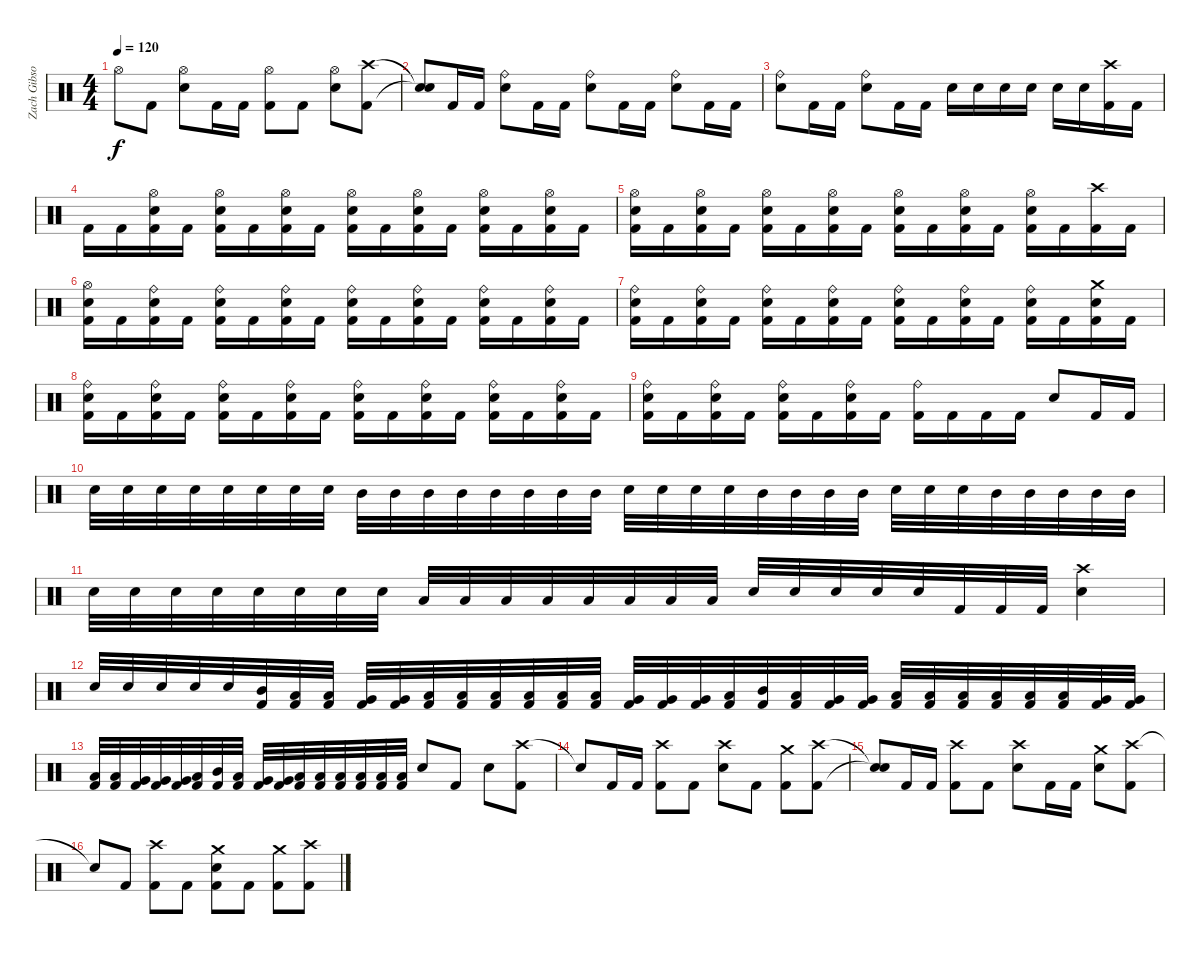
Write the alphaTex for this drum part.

\track ("Zach Gibson (Drums)" "Zach Gibso") {instrument percussion}
\staff {score}
\articulation defaults
\ts (4 4)
\tempo 120
\clef neutral
\ks c "Hi-Hat (open)".8{dy f} "Kick (hit) 2".8
("Hi-Hat (open)" "Snare (hit) 2").8 "Kick (hit) 2".16 "Kick (hit) 2".16 ("Kick (hit) 2" "Hi-Hat (open)").8 "Kick (hit) 2".8 ("Hi-Hat (open)" "Snare (hit) 2").8 ("Crash high (hit)" "Kick (hit) 2").8 |
("Snare (hit)"{t} "Snare (hit)"{t}).8 "Kick (hit) 2".16 "Kick (hit) 2".16 ("Ride (bell)" "Snare (hit) 2").8 "Kick (hit) 2".16 "Kick (hit) 2".16 ("Ride (bell)" "Snare (hit) 2").8 "Kick (hit) 2".16 "Kick (hit) 2".16 ("Ride (bell)" "Snare (hit) 2").8 "Kick (hit) 2".16 "Kick (hit) 2".16 |
("Ride (bell)" "Snare (hit) 2").8 "Kick (hit) 2".16 "Kick (hit) 2".16 ("Ride (bell)" "Snare (hit) 2").8 "Kick (hit) 2".16 "Kick (hit) 2".16 "Snare (hit) 2".16 "Snare (hit) 2".16 "Snare (hit) 2".16 "Snare (hit) 2".16 "Snare (hit) 2".16 "Snare (hit) 2".16 ("Crash high (hit)" "Kick (hit) 2").16 "Kick (hit) 2".16 |
"Kick (hit) 2".16 "Kick (hit) 2".16 ("Hi-Hat (open)" "Snare (hit) 2" "Kick (hit) 2").16 "Kick (hit) 2".16 ("Hi-Hat (open)" "Snare (hit) 2" "Kick (hit) 2").16 "Kick (hit) 2".16 ("Hi-Hat (open)" "Snare (hit) 2" "Kick (hit) 2").16 "Kick (hit) 2".16 ("Hi-Hat (open)" "Snare (hit) 2" "Kick (hit) 2").16 "Kick (hit) 2".16 ("Hi-Hat (open)" "Snare (hit) 2" "Kick (hit) 2").16 "Kick (hit) 2".16 ("Hi-Hat (open)" "Snare (hit) 2" "Kick (hit) 2").16 "Kick (hit) 2".16 ("Hi-Hat (open)" "Snare (hit) 2" "Kick (hit) 2").16 "Kick (hit) 2".16 |
("Hi-Hat (open)" "Snare (hit) 2" "Kick (hit) 2").16 "Kick (hit) 2".16 ("Hi-Hat (open)" "Snare (hit) 2" "Kick (hit) 2").16 "Kick (hit) 2".16 ("Hi-Hat (open)" "Snare (hit) 2" "Kick (hit) 2").16 "Kick (hit) 2".16 ("Hi-Hat (open)" "Snare (hit) 2" "Kick (hit) 2").16 "Kick (hit) 2".16 ("Hi-Hat (open)" "Snare (hit) 2" "Kick (hit) 2").16 "Kick (hit) 2".16 ("Hi-Hat (open)" "Snare (hit) 2" "Kick (hit) 2").16 "Kick (hit) 2".16 ("Hi-Hat (open)" "Snare (hit) 2" "Kick (hit) 2").16 "Kick (hit) 2".16 ("Crash high (hit)" "Kick (hit) 2").16 "Kick (hit) 2".16 |
("Hi-Hat (open)" "Snare (hit) 2" "Kick (hit) 2").16 "Kick (hit) 2".16 ("Ride (bell)" "Snare (hit) 2" "Kick (hit) 2").16 "Kick (hit) 2".16 ("Ride (bell)" "Snare (hit) 2" "Kick (hit) 2").16 "Kick (hit) 2".16 ("Ride (bell)" "Snare (hit) 2" "Kick (hit) 2").16 "Kick (hit) 2".16 ("Ride (bell)" "Snare (hit) 2" "Kick (hit) 2").16 "Kick (hit) 2".16 ("Ride (bell)" "Snare (hit) 2" "Kick (hit) 2").16 "Kick (hit) 2".16 ("Ride (bell)" "Snare (hit) 2" "Kick (hit) 2").16 "Kick (hit) 2".16 ("Ride (bell)" "Snare (hit) 2" "Kick (hit) 2").16 "Kick (hit) 2".16 |
("Ride (bell)" "Snare (hit) 2" "Kick (hit) 2").16 "Kick (hit) 2".16 ("Ride (bell)" "Snare (hit) 2" "Kick (hit) 2").16 "Kick (hit) 2".16 ("Ride (bell)" "Snare (hit) 2" "Kick (hit) 2").16 "Kick (hit) 2".16 ("Ride (bell)" "Snare (hit) 2" "Kick (hit) 2").16 "Kick (hit) 2".16 ("Ride (bell)" "Snare (hit) 2" "Kick (hit) 2").16 "Kick (hit) 2".16 ("Ride (bell)" "Snare (hit) 2" "Kick (hit) 2").16 "Kick (hit) 2".16 ("Ride (bell)" "Snare (hit) 2" "Kick (hit) 2").16 "Kick (hit) 2".16 ("Crash medium (hit)" "Snare (hit) 2" "Kick (hit) 2").16 "Kick (hit) 2".16 |
("Ride (bell)" "Snare (hit) 2" "Kick (hit) 2").16 "Kick (hit) 2".16 ("Ride (bell)" "Snare (hit) 2" "Kick (hit) 2").16 "Kick (hit) 2".16 ("Ride (bell)" "Snare (hit) 2" "Kick (hit) 2").16 "Kick (hit) 2".16 ("Ride (bell)" "Snare (hit) 2" "Kick (hit) 2").16 "Kick (hit) 2".16 ("Ride (bell)" "Snare (hit) 2" "Kick (hit) 2").16 "Kick (hit) 2".16 ("Ride (bell)" "Snare (hit) 2" "Kick (hit) 2").16 "Kick (hit) 2".16 ("Ride (bell)" "Snare (hit) 2" "Kick (hit) 2").16 "Kick (hit) 2".16 ("Ride (bell)" "Snare (hit) 2" "Kick (hit) 2").16 "Kick (hit) 2".16 |
("Ride (bell)" "Snare (hit) 2" "Kick (hit) 2").16 "Kick (hit) 2".16 ("Ride (bell)" "Snare (hit) 2" "Kick (hit) 2").16 "Kick (hit) 2".16 ("Ride (bell)" "Snare (hit) 2" "Kick (hit) 2").16 "Kick (hit) 2".16 ("Ride (bell)" "Snare (hit) 2" "Kick (hit) 2").16 "Kick (hit) 2".16 ("Ride (bell)" "Kick (hit) 2").16 "Kick (hit) 2".16 "Kick (hit) 2".16 "Kick (hit) 2".16 "Snare (hit) 2".8 "Kick (hit) 2".16 "Kick (hit) 2".16 |
"Snare (hit) 2".32 "Snare (hit) 2".32 "Snare (hit) 2".32 "Snare (hit) 2".32 "Snare (hit) 2".32 "Snare (hit) 2".32 "Snare (hit) 2".32 "Snare (hit) 2".32 "Mid Tom (hit)".32 "Mid Tom (hit)".32 "Mid Tom (hit)".32 "Mid Tom (hit)".32 "Mid Tom (hit)".32 "Mid Tom (hit)".32 "Mid Tom (hit)".32 "Mid Tom (hit)".32 "Snare (hit) 2".32 "Snare (hit) 2".32 "Snare (hit) 2".32 "Snare (hit) 2".32 "Mid Tom (hit)".32 "Mid Tom (hit)".32 "Mid Tom (hit)".32 "Mid Tom (hit)".32 "Snare (hit) 2".32 "Snare (hit) 2".32 "Snare (hit) 2".32 "Mid Tom (hit)".32 "Mid Tom (hit)".32 "Mid Tom (hit)".32 "Mid Tom (hit)".32 "Mid Tom (hit)".32 |
"Snare (hit) 2".32 "Snare (hit) 2".32 "Snare (hit) 2".32 "Snare (hit) 2".32 "Snare (hit) 2".32 "Snare (hit) 2".32 "Snare (hit) 2".32 "Snare (hit) 2".32 "Low Tom (hit)".32 "Low Tom (hit)".32 "Low Tom (hit)".32 "Low Tom (hit)".32 "Low Tom (hit)".32 "Low Tom (hit)".32 "Low Tom (hit)".32 "Low Tom (hit)".32 "Snare (hit) 2".32 "Snare (hit) 2".32 "Snare (hit) 2".32 "Snare (hit) 2".32 "Snare (hit) 2".32 "Kick (hit) 2".32 "Kick (hit) 2".32 "Kick (hit) 2".32 ("Crash high (hit)" "Snare (hit) 2").4 |
"Snare (hit) 2".32 "Snare (hit) 2".32 "Snare (hit) 2".32 "Snare (hit) 2".32 "Snare (hit) 2".32 ("Mid Tom (hit)" "Kick (hit) 2").32 ("Low Tom (hit)" "Kick (hit) 2").32 ("Low Tom (hit)" "Kick (hit) 2").32 ("Very Low Tom (hit)" "Kick (hit) 2").32 ("Very Low Tom (hit)" "Kick (hit) 2").32 ("Low Floor Tom (hit)" "Kick (hit) 2").32 ("Low Floor Tom (hit)" "Kick (hit) 2").32 ("Low Floor Tom (hit)" "Kick (hit) 2").32 ("Low Tom (hit)" "Kick (hit) 2").32 ("Low Tom (hit)" "Kick (hit) 2").32 ("Low Tom (hit)" "Kick (hit) 2").32 ("Very Low Tom (hit)" "Kick (hit) 2").32 ("Very Low Tom (hit)" "Kick (hit) 2").32 ("Very Low Tom (hit)" "Kick (hit) 2").32 ("Low Floor Tom (hit)" "Kick (hit) 2").32 ("Mid Tom (hit)" "Kick (hit) 2").32 ("Low Tom (hit)" "Kick (hit) 2").32 ("Very Low Tom (hit)" "Kick (hit) 2").32 ("Very Low Tom (hit)" "Kick (hit) 2").32 ("Low Floor Tom (hit)" "Kick (hit) 2").32 ("Low Floor Tom (hit)" "Kick (hit) 2").32 ("Low Floor Tom (hit)" "Kick (hit) 2").32 ("Low Floor Tom (hit)" "Kick (hit) 2").32 ("Low Floor Tom (hit)" "Kick (hit) 2").32 ("Low Floor Tom (hit)" "Kick (hit) 2").32 ("Very Low Tom (hit)" "Kick (hit) 2").32 ("Very Low Tom (hit)" "Kick (hit) 2").32 |
("Low Tom (hit)" "Kick (hit) 2").32 ("Low Tom (hit)" "Kick (hit) 2").32 ("Very Low Tom (hit)" "Kick (hit) 2").32 ("Very Low Tom (hit)" "Kick (hit) 2").32 ("Very Low Tom (hit)" "Kick (hit) 2").32 ("Low Floor Tom (hit)" "Kick (hit) 2").32 ("Mid Tom (hit)" "Kick (hit) 2").32 ("Low Tom (hit)" "Kick (hit) 2").32 ("Very Low Tom (hit)" "Kick (hit) 2").32 ("Very Low Tom (hit)" "Kick (hit) 2").32 ("Low Floor Tom (hit)" "Kick (hit) 2").32 ("Low Floor Tom (hit)" "Kick (hit) 2").32 ("Low Floor Tom (hit)" "Kick (hit) 2").32 ("Low Floor Tom (hit)" "Kick (hit) 2").32 ("Low Floor Tom (hit)" "Kick (hit) 2").32 ("Low Floor Tom (hit)" "Kick (hit) 2").32 "Snare (hit) 2".8 "Kick (hit) 2".8 "Snare (hit) 2".8 ("Crash high (hit)" "Kick (hit) 2").8 |
"Snare (hit)"{t}.8 "Kick (hit) 2".16 "Kick (hit) 2".16 ("Crash high (hit)" "Kick (hit) 2").8 "Kick (hit) 2".8 ("Crash high (hit)" "Snare (hit) 2").8 "Kick (hit) 2".8 ("Crash medium (hit)" "Kick (hit) 2").8 ("Crash high (hit)" "Kick (hit) 2").8 |
("Snare (hit)"{t} "Snare (hit)"{t}).8 "Kick (hit) 2".16 "Kick (hit) 2".16 ("Crash high (hit)" "Kick (hit) 2").8 "Kick (hit) 2".8 ("Crash high (hit)" "Snare (hit) 2").8 "Kick (hit) 2".16 "Kick (hit) 2".16 ("Crash medium (hit)" "Snare (hit) 2").8 ("Crash high (hit)" "Kick (hit) 2").8 |
"Snare (hit)"{t}.8 "Kick (hit) 2".8 ("Crash high (hit)" "Kick (hit) 2").8 "Kick (hit) 2".8 ("Crash medium (hit)" "Snare (hit) 2" "Kick (hit) 2").8 "Kick (hit) 2".8 ("Crash medium (hit)" "Kick (hit) 2").8 ("Crash high (hit)" "Kick (hit) 2").8
